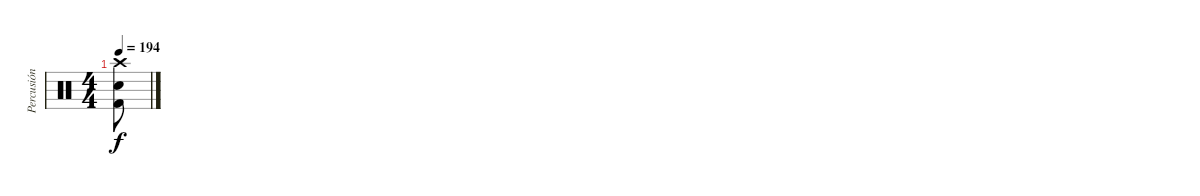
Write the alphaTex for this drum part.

\track ("Percusión" "Percusión") {instrument percussion}
\staff {score}
\articulation defaults
\ts (4 4)
\tempo 194
\clef neutral
\ks c
("Crash high (hit)" "Kick (hit) 2" "Snare (hit) 2").8{dy f}
